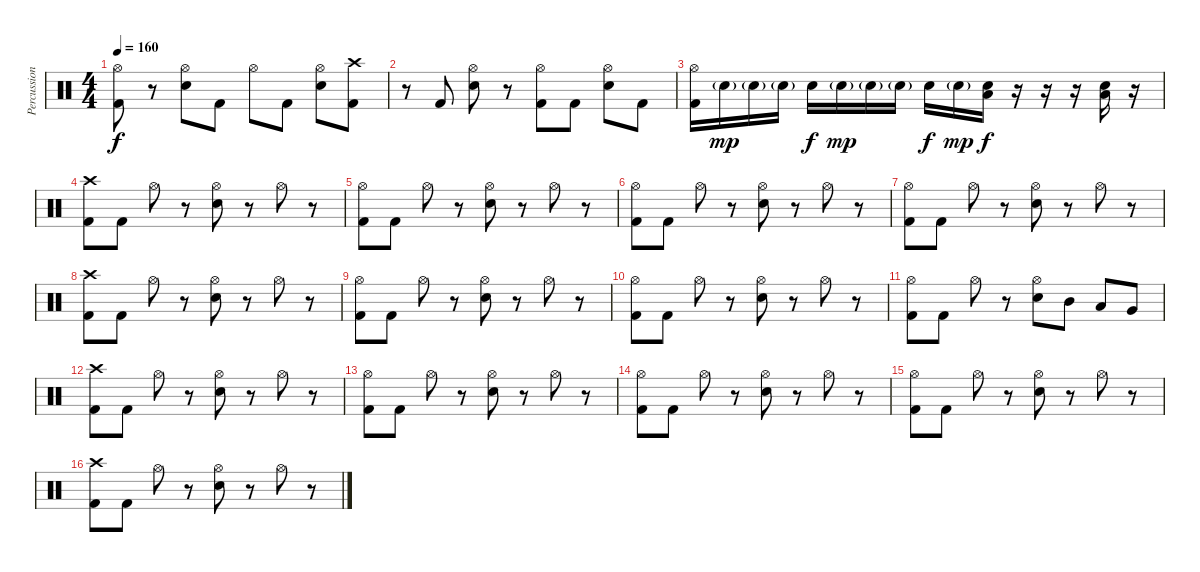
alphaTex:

\track ("Percussion" "Percussion") {instrument percussion}
\staff {score}
\articulation defaults
\ts (4 4)
\tempo 160
\clef neutral
\ks c
("Hi-Hat (open)" "Kick (hit) 2").8{dy f} r.8 ("Hi-Hat (open)" "Electric Snare (hit)").8 "Kick (hit) 2".8 "Hi-Hat (open)".8 "Kick (hit) 2".8 ("Hi-Hat (open)" "Electric Snare (hit)").8 ("Crash high (hit)" "Kick (hit) 2").8 |
r.8 "Kick (hit) 2".8 ("Hi-Hat (open)" "Electric Snare (hit)").8 r.8 ("Hi-Hat (open)" "Kick (hit) 2").8 "Kick (hit) 2".8 ("Hi-Hat (open)" "Electric Snare (hit)").8 "Kick (hit) 2".8 |
("Hi-Hat (open)" "Kick (hit) 2").16 "Electric Snare (hit)"{g}.16{dy mp} "Electric Snare (hit)"{g}.16 "Electric Snare (hit)"{g}.16 "Electric Snare (hit)".16{dy f} "Electric Snare (hit)"{g}.16{dy mp} "Electric Snare (hit)"{g}.16 "Electric Snare (hit)"{g}.16 "Electric Snare (hit)".16{dy f} "Electric Snare (hit)"{g}.16{dy mp} ("Electric Snare (hit)" "Low Floor Tom (hit)").16{dy f} r.16 r.16 r.16 ("Electric Snare (hit)" "Low Floor Tom (hit)").16 r.16 |
("Crash high (hit)" "Kick (hit) 2").8 "Kick (hit) 2".8 "Hi-Hat (open)".8 r.8 ("Hi-Hat (open)" "Electric Snare (hit)").8 r.8 "Hi-Hat (open)".8 r.8 |
("Hi-Hat (open)" "Kick (hit) 2").8 "Kick (hit) 2".8 "Hi-Hat (open)".8 r.8 ("Hi-Hat (open)" "Electric Snare (hit)").8 r.8 "Hi-Hat (open)".8 r.8 |
("Hi-Hat (open)" "Kick (hit) 2").8 "Kick (hit) 2".8 "Hi-Hat (open)".8 r.8 ("Hi-Hat (open)" "Electric Snare (hit)").8 r.8 "Hi-Hat (open)".8 r.8 |
("Hi-Hat (open)" "Kick (hit) 2").8 "Kick (hit) 2".8 "Hi-Hat (open)".8 r.8 ("Hi-Hat (open)" "Electric Snare (hit)").8 r.8 "Hi-Hat (open)".8 r.8 |
("Crash high (hit)" "Kick (hit) 2").8 "Kick (hit) 2".8 "Hi-Hat (open)".8 r.8 ("Hi-Hat (open)" "Electric Snare (hit)").8 r.8 "Hi-Hat (open)".8 r.8 |
("Hi-Hat (open)" "Kick (hit) 2").8 "Kick (hit) 2".8 "Hi-Hat (open)".8 r.8 ("Hi-Hat (open)" "Electric Snare (hit)").8 r.8 "Hi-Hat (open)".8 r.8 |
("Hi-Hat (open)" "Kick (hit) 2").8 "Kick (hit) 2".8 "Hi-Hat (open)".8 r.8 ("Hi-Hat (open)" "Electric Snare (hit)").8 r.8 "Hi-Hat (open)".8 r.8 |
("Hi-Hat (open)" "Kick (hit) 2").8 "Kick (hit) 2".8 "Hi-Hat (open)".8 r.8 ("Hi-Hat (open)" "Electric Snare (hit)").8 "Mid Tom (hit)".8 "Low Tom (hit)".8 "Very Low Tom (hit)".8 |
("Crash high (hit)" "Kick (hit) 2").8 "Kick (hit) 2".8 "Hi-Hat (open)".8 r.8 ("Hi-Hat (open)" "Electric Snare (hit)").8 r.8 "Hi-Hat (open)".8 r.8 |
("Hi-Hat (open)" "Kick (hit) 2").8 "Kick (hit) 2".8 "Hi-Hat (open)".8 r.8 ("Hi-Hat (open)" "Electric Snare (hit)").8 r.8 "Hi-Hat (open)".8 r.8 |
("Hi-Hat (open)" "Kick (hit) 2").8 "Kick (hit) 2".8 "Hi-Hat (open)".8 r.8 ("Hi-Hat (open)" "Electric Snare (hit)").8 r.8 "Hi-Hat (open)".8 r.8 |
("Hi-Hat (open)" "Kick (hit) 2").8 "Kick (hit) 2".8 "Hi-Hat (open)".8 r.8 ("Hi-Hat (open)" "Electric Snare (hit)").8 r.8 "Hi-Hat (open)".8 r.8 |
("Crash high (hit)" "Kick (hit) 2").8 "Kick (hit) 2".8 "Hi-Hat (open)".8 r.8 ("Hi-Hat (open)" "Electric Snare (hit)").8 r.8 "Hi-Hat (open)".8 r.8
